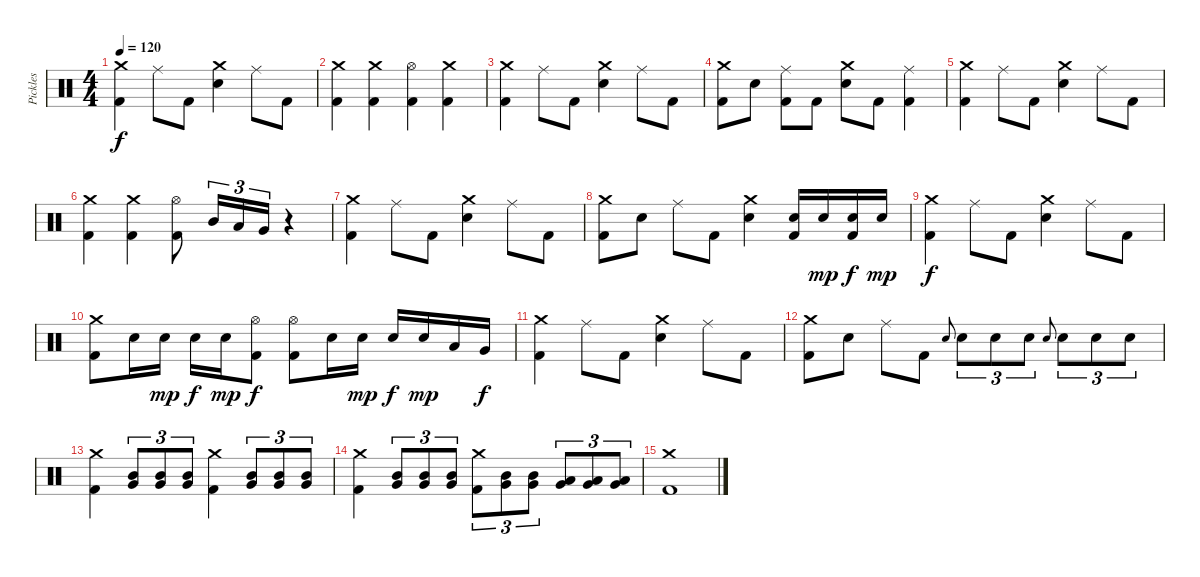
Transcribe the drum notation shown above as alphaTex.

\track ("Pickles" "Pickles") {instrument percussion}
\staff {score}
\articulation defaults
\ts (4 4)
\tempo 120
\clef neutral
\ks c
("Crash medium (hit)" "Kick (hit) 2").4{dy f} "Ride (middle)".8 "Kick (hit) 2".8 ("Crash medium (hit)" "Electric Snare (hit)").4 "Ride (middle)".8 "Kick (hit) 2".8 |
("Crash medium (hit)" "Kick (hit) 2").4 ("Crash medium (hit)" "Kick (hit) 2").4 ("Hi-Hat (open)" "Kick (hit) 2").4 ("Crash medium (hit)" "Kick (hit) 2").4 |
("Crash medium (hit)" "Kick (hit) 2").4 "Ride (middle)".8 "Kick (hit) 2".8 ("Crash medium (hit)" "Electric Snare (hit)").4 "Ride (middle)".8 "Kick (hit) 2".8 |
("Crash medium (hit)" "Kick (hit) 2").8 "Electric Snare (hit)".8 ("Ride (middle)" "Kick (hit) 2").8 "Kick (hit) 2".8 ("Crash medium (hit)" "Electric Snare (hit)").8 "Kick (hit) 2".8 ("Ride (middle)" "Kick (hit) 2").4 |
("Crash medium (hit)" "Kick (hit) 2").4 "Ride (middle)".8 "Kick (hit) 2".8 ("Crash medium (hit)" "Electric Snare (hit)").4 "Ride (middle)".8 "Kick (hit) 2".8 |
("Crash medium (hit)" "Kick (hit) 2").4 ("Crash medium (hit)" "Kick (hit) 2").4 ("Hi-Hat (open)" "Kick (hit) 2").8 "Mid Tom (hit)".16{tu (3 2)} "Low Tom (hit)".16{tu (3 2)} "Very Low Tom (hit)".16{tu (3 2)} r.4 |
("Crash medium (hit)" "Kick (hit) 2").4 "Ride (middle)".8 "Kick (hit) 2".8 ("Crash medium (hit)" "Electric Snare (hit)").4 "Ride (middle)".8 "Kick (hit) 2".8 |
("Crash medium (hit)" "Kick (hit) 2").8 "Electric Snare (hit)".8 "Ride (middle)".8 "Kick (hit) 2".8 ("Crash medium (hit)" "Electric Snare (hit)").4 ("Electric Snare (hit)" "Kick (hit) 2").16 "Electric Snare (hit)".16{dy mp} ("Electric Snare (hit)" "Kick (hit) 2").16{dy f} "Electric Snare (hit)".16{dy mp} |
("Crash medium (hit)" "Kick (hit) 2").4{dy f} "Ride (middle)".8 "Kick (hit) 2".8 ("Crash medium (hit)" "Electric Snare (hit)").4 "Ride (middle)".8 "Kick (hit) 2".8 |
("Crash medium (hit)" "Kick (hit) 2").8 "Electric Snare (hit)".16 "Electric Snare (hit)".16{dy mp} "Electric Snare (hit)".16{dy f} "Electric Snare (hit)".16{dy mp} ("Hi-Hat (open)" "Kick (hit) 2").8{dy f} ("Hi-Hat (open)" "Kick (hit) 2").8 "Electric Snare (hit)".16 "Electric Snare (hit)".16{dy mp} "Electric Snare (hit)".16{dy f} "Electric Snare (hit)".16{dy mp} "Low Tom (hit)".16 "Very Low Tom (hit)".16{dy f} |
("Crash medium (hit)" "Kick (hit) 2").4 "Ride (middle)".8 "Kick (hit) 2".8 ("Crash medium (hit)" "Electric Snare (hit)").4 "Ride (middle)".8 "Kick (hit) 2".8 |
("Crash medium (hit)" "Kick (hit) 2").8 "Electric Snare (hit)".8 "Ride (middle)".8 "Kick (hit) 2".8 "Electric Snare (hit)".8{gr onbeat} "Electric Snare (hit)".8{tu (3 2)} "Electric Snare (hit)".8{tu (3 2)} "Electric Snare (hit)".8{tu (3 2)} "Electric Snare (hit)".8{gr onbeat} "Electric Snare (hit)".8{tu (3 2)} "Electric Snare (hit)".8{tu (3 2)} "Electric Snare (hit)".8{tu (3 2)} |
("Crash medium (hit)" "Kick (hit) 2").4 ("Mid Tom (hit)" "Very Low Tom (hit)").8{tu (3 2)} ("Mid Tom (hit)" "Very Low Tom (hit)").8{tu (3 2)} ("Mid Tom (hit)" "Very Low Tom (hit)").8{tu (3 2)} ("Crash medium (hit)" "Kick (hit) 2").4 ("Mid Tom (hit)" "Very Low Tom (hit)").8{tu (3 2)} ("Mid Tom (hit)" "Very Low Tom (hit)").8{tu (3 2)} ("Mid Tom (hit)" "Very Low Tom (hit)").8{tu (3 2)} |
("Crash medium (hit)" "Kick (hit) 2").4 ("Mid Tom (hit)" "Very Low Tom (hit)").8{tu (3 2)} ("Mid Tom (hit)" "Very Low Tom (hit)").8{tu (3 2)} ("Mid Tom (hit)" "Very Low Tom (hit)").8{tu (3 2)} ("Crash medium (hit)" "Kick (hit) 2").8{tu (3 2)} ("Mid Tom (hit)" "Very Low Tom (hit)").8{tu (3 2)} ("Mid Tom (hit)" "Very Low Tom (hit)").8{tu (3 2)} ("Low Tom (hit)" "Very Low Tom (hit)").8{tu (3 2)} ("Low Tom (hit)" "Very Low Tom (hit)").8{tu (3 2)} ("Low Tom (hit)" "Very Low Tom (hit)").8{tu (3 2)} |
("Crash medium (hit)" "Kick (hit) 2").1
